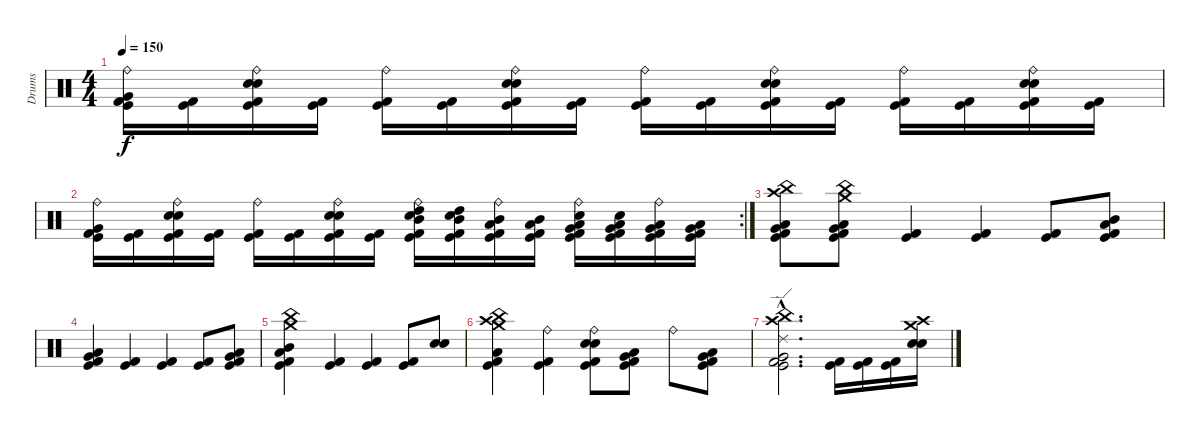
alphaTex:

\track ("Drums" "Drums") {instrument percussion}
\staff {score}
\articulation defaults
\ts (4 4)
\tempo 150
\clef neutral
\ks c
("Ride (bell)" "Very Low Tom (hit)" "Kick (hit) 2" "Kick (hit)").16{dy f} ("Kick (hit) 2" "Kick (hit)").16 ("Ride (bell)" "Snare (hit) 2" "Electric Snare (hit)" "Kick (hit) 2" "Kick (hit)").16 ("Kick (hit) 2" "Kick (hit)").16 ("Ride (bell)" "Kick (hit) 2" "Kick (hit)").16 ("Kick (hit) 2" "Kick (hit)").16 ("Ride (bell)" "Snare (hit) 2" "Electric Snare (hit)" "Kick (hit)" "Kick (hit) 2").16 ("Kick (hit) 2" "Kick (hit)").16 ("Ride (bell)" "Kick (hit) 2" "Kick (hit)").16 ("Kick (hit) 2" "Kick (hit)").16 ("Ride (bell)" "Snare (hit) 2" "Electric Snare (hit)" "Kick (hit) 2" "Kick (hit)").16 ("Kick (hit) 2" "Kick (hit)").16 ("Ride (bell)" "Kick (hit) 2" "Kick (hit)").16 ("Kick (hit) 2" "Kick (hit)").16 ("Ride (bell)" "Snare (hit) 2" "Electric Snare (hit)" "Kick (hit)" "Kick (hit) 2").16 ("Kick (hit) 2" "Kick (hit)").16 |
\rc 2
("Ride (bell)" "Very Low Tom (hit)" "Kick (hit) 2" "Kick (hit)").16 ("Kick (hit) 2" "Kick (hit)").16 ("Ride (bell)" "Snare (hit) 2" "Electric Snare (hit)" "Kick (hit) 2" "Kick (hit)").16 ("Kick (hit) 2" "Kick (hit)").16 ("Ride (bell)" "Kick (hit) 2" "Kick (hit)").16 ("Kick (hit) 2" "Kick (hit)").16 ("Ride (bell)" "Snare (hit) 2" "Electric Snare (hit)" "Kick (hit)" "Kick (hit) 2").16 ("Kick (hit) 2" "Kick (hit)").16 ("Electric Snare (hit)" "Ride (bell)" "High Tom (hit)" "Mid Tom (hit)" "Kick (hit) 2" "Kick (hit)").16 ("Electric Snare (hit)" "High Tom (hit)" "Mid Tom (hit)" "Kick (hit) 2" "Kick (hit)").16 ("Ride (bell)" "Mid Tom (hit)" "Low Tom (hit)" "Kick (hit) 2" "Kick (hit)").16 ("Mid Tom (hit)" "Low Tom (hit)" "Kick (hit) 2" "Kick (hit)").16 ("Snare (hit) 2" "Ride (bell)" "Low Tom (hit)" "Very Low Tom (hit)" "Kick (hit) 2" "Kick (hit)").16 ("Snare (hit) 2" "Low Tom (hit)" "Very Low Tom (hit)" "Kick (hit) 2" "Kick (hit)").16 ("Ride (bell)" "Very Low Tom (hit)" "Low Floor Tom (hit)" "Kick (hit)" "Kick (hit) 2").16 ("Very Low Tom (hit)" "Low Floor Tom (hit)" "Kick (hit) 2" "Kick (hit)").16 |
("Crash high (hit)" "China (hit)" "Low Tom (hit)" "Very Low Tom (hit)" "Kick (hit) 2" "Kick (hit)").8 ("Crash medium (hit)" "China (hit)" "Low Tom (hit)" "Very Low Tom (hit)" "Kick (hit) 2" "Kick (hit)").8 ("Kick (hit) 2" "Kick (hit)").4 ("Kick (hit) 2" "Kick (hit)").4 ("Kick (hit) 2" "Kick (hit)").8 ("Mid Tom (hit)" "Low Tom (hit)" "Kick (hit)" "Kick (hit) 2").8 |
("Very Low Tom (hit)" "Low Tom (hit)" "Kick (hit)" "Kick (hit) 2").4 ("Kick (hit) 2" "Kick (hit)").4 ("Kick (hit)" "Kick (hit) 2").4 ("Kick (hit) 2" "Kick (hit)").8 ("Very Low Tom (hit)" "Low Tom (hit)" "Kick (hit) 2" "Kick (hit)").8 |
("Crash medium (hit)" "China (hit)" "Mid Tom (hit)" "Low Tom (hit)" "Kick (hit)" "Kick (hit) 2").4 ("Kick (hit) 2" "Kick (hit)").4 ("Kick (hit) 2" "Kick (hit)").4 ("Kick (hit)" "Kick (hit) 2").8 ("Electric Snare (hit)" "Snare (hit) 2").8 |
("Crash high (hit)" "Crash medium (hit)" "China (hit)" "Low Tom (hit)" "Kick (hit) 2" "Kick (hit)").4 ("Ride (bell)" "Kick (hit)" "Kick (hit) 2").4 ("Ride (bell)" "Kick (hit) 2" "Snare (hit) 2" "Electric Snare (hit)" "Kick (hit)").8 ("Very Low Tom (hit)" "Low Tom (hit)" "Kick (hit) 2" "Kick (hit)").8 "Ride (bell)".8 ("Very Low Tom (hit)" "Low Tom (hit)" "Kick (hit) 2" "Kick (hit)").8 |
("Crash high (hit)"{hac} "Ride (edge) 2"{hac} "China (hit)"{hac} "Very Low Tom (hit)"{hac} "Kick (hit) 2"{hac} "Kick (hit)"{hac}).2{d} ("Kick (hit) 2" "Kick (hit)").16 ("Kick (hit) 2" "Kick (hit)").16 ("Kick (hit) 2" "Kick (hit)").16 ("Crash medium (hit)" "Crash high (hit)" "Electric Snare (hit)" "Snare (hit) 2").16
